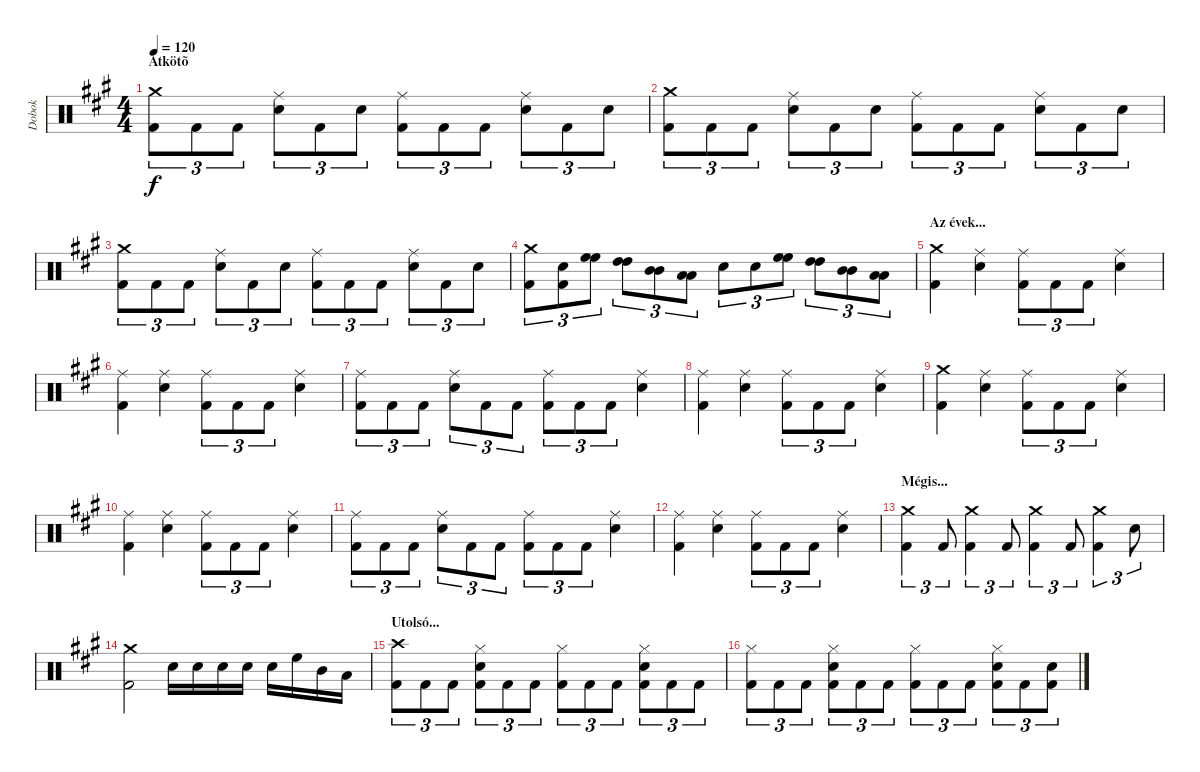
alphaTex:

\track ("Dobok" "Dobok") {instrument percussion}
\staff {score}
\articulation defaults
\ts (4 4)
\section ("" "Átkötõ")
\tempo 120
\clef neutral
\ks a
("Crash medium (hit)" "Kick (hit) 2").8{tu (3 2) dy f} "Kick (hit) 2".8{tu (3 2)} "Kick (hit) 2".8{tu (3 2)} ("Ride (middle)" "Snare (hit) 2").8{tu (3 2)} "Kick (hit) 2".8{tu (3 2)} "Snare (hit) 2".8{tu (3 2)} ("Ride (middle)" "Kick (hit) 2").8{tu (3 2)} "Kick (hit) 2".8{tu (3 2)} "Kick (hit) 2".8{tu (3 2)} ("Ride (middle)" "Snare (hit) 2").8{tu (3 2)} "Kick (hit) 2".8{tu (3 2)} "Snare (hit) 2".8{tu (3 2)} |
("Crash medium (hit)" "Kick (hit) 2").8{tu (3 2)} "Kick (hit) 2".8{tu (3 2)} "Kick (hit) 2".8{tu (3 2)} ("Ride (middle)" "Snare (hit) 2").8{tu (3 2)} "Kick (hit) 2".8{tu (3 2)} "Snare (hit) 2".8{tu (3 2)} ("Ride (middle)" "Kick (hit) 2").8{tu (3 2)} "Kick (hit) 2".8{tu (3 2)} "Kick (hit) 2".8{tu (3 2)} ("Ride (middle)" "Snare (hit) 2").8{tu (3 2)} "Kick (hit) 2".8{tu (3 2)} "Snare (hit) 2".8{tu (3 2)} |
("Crash medium (hit)" "Kick (hit) 2").8{tu (3 2)} "Kick (hit) 2".8{tu (3 2)} "Kick (hit) 2".8{tu (3 2)} ("Ride (middle)" "Snare (hit) 2").8{tu (3 2)} "Kick (hit) 2".8{tu (3 2)} "Snare (hit) 2".8{tu (3 2)} ("Ride (middle)" "Kick (hit) 2").8{tu (3 2)} "Kick (hit) 2".8{tu (3 2)} "Kick (hit) 2".8{tu (3 2)} ("Ride (middle)" "Snare (hit) 2").8{tu (3 2)} "Kick (hit) 2".8{tu (3 2)} "Snare (hit) 2".8{tu (3 2)} |
("Crash medium (hit)" "Kick (hit) 2").8{tu (3 2)} ("Snare (hit) 2" "Kick (hit) 2").8{tu (3 2)} ("High Floor Tom (hit)" "High Floor Tom (hit)").8{tu (3 2)} ("High Tom (hit)" "High Tom (hit)").8{tu (3 2)} ("Mid Tom (hit)" "Mid Tom (hit)").8{tu (3 2)} ("Low Tom (hit)" "Low Tom (hit)").8{tu (3 2)} "Snare (hit) 2".8{tu (3 2)} "Snare (hit) 2".8{tu (3 2)} ("High Floor Tom (hit)" "High Floor Tom (hit)").8{tu (3 2)} ("High Tom (hit)" "High Tom (hit)").8{tu (3 2)} ("Mid Tom (hit)" "Mid Tom (hit)").8{tu (3 2)} ("Low Tom (hit)" "Low Tom (hit)").8{tu (3 2)} |
\section ("" "Az évek...")
("Crash medium (hit)" "Kick (hit) 2").4 ("Ride (middle)" "Snare (hit) 2").4 ("Ride (middle)" "Kick (hit) 2").8{tu (3 2)} "Kick (hit) 2".8{tu (3 2)} "Kick (hit) 2".8{tu (3 2)} ("Ride (middle)" "Snare (hit) 2").4 |
("Ride (middle)" "Kick (hit) 2").4 ("Ride (middle)" "Snare (hit) 2").4 ("Ride (middle)" "Kick (hit) 2").8{tu (3 2)} "Kick (hit) 2".8{tu (3 2)} "Kick (hit) 2".8{tu (3 2)} ("Ride (middle)" "Snare (hit) 2").4 |
("Ride (middle)" "Kick (hit) 2").8{tu (3 2)} "Kick (hit) 2".8{tu (3 2)} "Kick (hit) 2".8{tu (3 2)} ("Ride (middle)" "Snare (hit) 2").8{tu (3 2)} "Kick (hit) 2".8{tu (3 2)} "Kick (hit) 2".8{tu (3 2)} ("Ride (middle)" "Kick (hit) 2").8{tu (3 2)} "Kick (hit) 2".8{tu (3 2)} "Kick (hit) 2".8{tu (3 2)} ("Ride (middle)" "Snare (hit) 2").4 |
("Ride (middle)" "Kick (hit) 2").4 ("Ride (middle)" "Snare (hit) 2").4 ("Ride (middle)" "Kick (hit) 2").8{tu (3 2)} "Kick (hit) 2".8{tu (3 2)} "Kick (hit) 2".8{tu (3 2)} ("Ride (middle)" "Snare (hit) 2").4 |
("Crash medium (hit)" "Kick (hit) 2").4 ("Ride (middle)" "Snare (hit) 2").4 ("Ride (middle)" "Kick (hit) 2").8{tu (3 2)} "Kick (hit) 2".8{tu (3 2)} "Kick (hit) 2".8{tu (3 2)} ("Ride (middle)" "Snare (hit) 2").4 |
("Ride (middle)" "Kick (hit) 2").4 ("Ride (middle)" "Snare (hit) 2").4 ("Ride (middle)" "Kick (hit) 2").8{tu (3 2)} "Kick (hit) 2".8{tu (3 2)} "Kick (hit) 2".8{tu (3 2)} ("Ride (middle)" "Snare (hit) 2").4 |
("Ride (middle)" "Kick (hit) 2").8{tu (3 2)} "Kick (hit) 2".8{tu (3 2)} "Kick (hit) 2".8{tu (3 2)} ("Ride (middle)" "Snare (hit) 2").8{tu (3 2)} "Kick (hit) 2".8{tu (3 2)} "Kick (hit) 2".8{tu (3 2)} ("Ride (middle)" "Kick (hit) 2").8{tu (3 2)} "Kick (hit) 2".8{tu (3 2)} "Kick (hit) 2".8{tu (3 2)} ("Ride (middle)" "Snare (hit) 2").4 |
("Ride (middle)" "Kick (hit) 2").4 ("Ride (middle)" "Snare (hit) 2").4 ("Ride (middle)" "Kick (hit) 2").8{tu (3 2)} "Kick (hit) 2".8{tu (3 2)} "Kick (hit) 2".8{tu (3 2)} ("Ride (middle)" "Snare (hit) 2").4 |
\section ("" "Mégis...")
("Crash medium (hit)" "Kick (hit) 2").4{tu (3 2)} "Kick (hit) 2".8{tu (3 2)} ("Crash medium (hit)" "Kick (hit) 2").4{tu (3 2)} "Kick (hit) 2".8{tu (3 2)} ("Crash medium (hit)" "Kick (hit) 2").4{tu (3 2)} "Kick (hit) 2".8{tu (3 2)} ("Crash medium (hit)" "Kick (hit) 2").4{tu (3 2)} "Snare (hit) 2".8{tu (3 2)} |
("Crash medium (hit)" "Kick (hit) 2").2 "Snare (hit) 2".16 "Snare (hit) 2".16 "Snare (hit) 2".16 "Snare (hit) 2".16 "Snare (hit) 2".16 "High Floor Tom (hit)".16 "Mid Tom (hit)".16 "Low Tom (hit)".16 |
\section ("" "Utolsó...")
("Crash high (hit)" "Kick (hit) 2").8{tu (3 2)} "Kick (hit) 2".8{tu (3 2)} "Kick (hit) 2".8{tu (3 2)} ("Hi-Hat (closed)" "Snare (hit) 2" "Kick (hit) 2").8{tu (3 2)} "Kick (hit) 2".8{tu (3 2)} "Kick (hit) 2".8{tu (3 2)} ("Hi-Hat (closed)" "Kick (hit) 2").8{tu (3 2)} "Kick (hit) 2".8{tu (3 2)} "Kick (hit) 2".8{tu (3 2)} ("Hi-Hat (closed)" "Snare (hit) 2" "Kick (hit) 2").8{tu (3 2)} "Kick (hit) 2".8{tu (3 2)} "Kick (hit) 2".8{tu (3 2)} |
("Hi-Hat (closed)" "Kick (hit) 2").8{tu (3 2)} "Kick (hit) 2".8{tu (3 2)} "Kick (hit) 2".8{tu (3 2)} ("Hi-Hat (closed)" "Snare (hit) 2" "Kick (hit) 2").8{tu (3 2)} "Kick (hit) 2".8{tu (3 2)} "Kick (hit) 2".8{tu (3 2)} ("Hi-Hat (closed)" "Kick (hit) 2").8{tu (3 2)} "Kick (hit) 2".8{tu (3 2)} "Kick (hit) 2".8{tu (3 2)} ("Hi-Hat (closed)" "Snare (hit) 2" "Kick (hit) 2").8{tu (3 2)} "Kick (hit) 2".8{tu (3 2)} ("Snare (hit) 2" "Kick (hit) 2").8{tu (3 2)}
